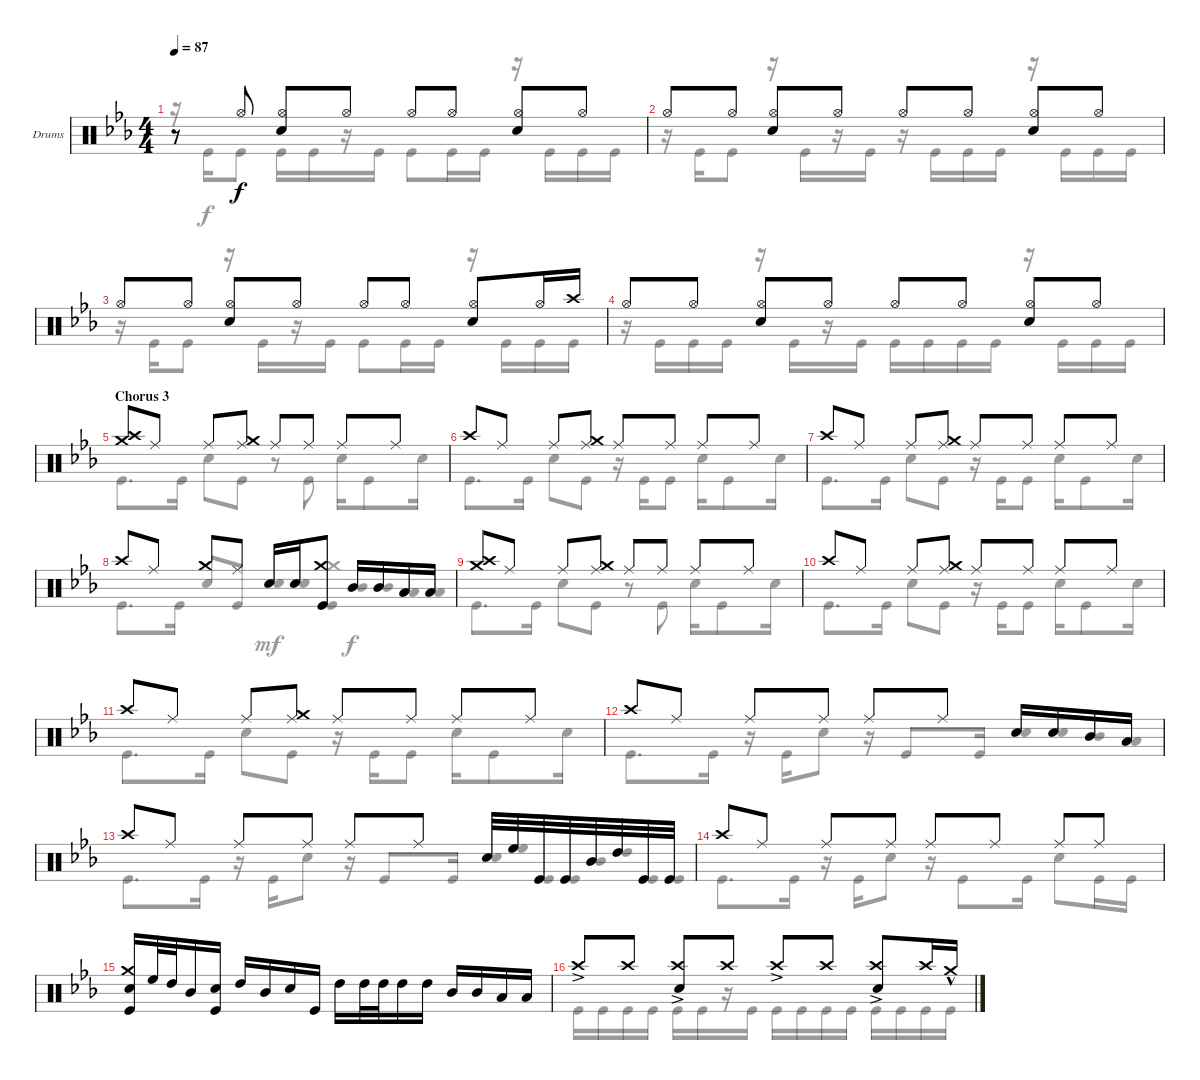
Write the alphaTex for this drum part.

\bracketExtendMode groupsimilarinstruments
\firstSystemTrackNameOrientation horizontal
\otherSystemsTrackNameOrientation horizontal
\track ("Mike Wengren" "Drums") {instrument percussion}
\staff {score}
\articulation defaults
\voice
\ts (4 4)
\tempo 87
\clef neutral
\ks cminor
r.8{dy f} "Hi-Hat (open)".8 ("Hi-Hat (open)" "Snare (hit) 2").8 "Hi-Hat (open)".8 "Hi-Hat (open)".8 "Hi-Hat (open)".8 ("Hi-Hat (open)" "Snare (hit) 2").8 "Hi-Hat (open)".8 |
"Hi-Hat (open)".8 "Hi-Hat (open)".8 ("Hi-Hat (open)" "Snare (hit) 2").8 "Hi-Hat (open)".8 "Hi-Hat (open)".8 "Hi-Hat (open)".8 ("Hi-Hat (open)" "Snare (hit) 2").8 "Hi-Hat (open)".8 |
"Hi-Hat (open)".8 "Hi-Hat (open)".8 ("Hi-Hat (open)" "Snare (hit) 2").8 "Hi-Hat (open)".8 "Hi-Hat (open)".8 "Hi-Hat (open)".8 ("Hi-Hat (open)" "Snare (hit) 2").8 "Hi-Hat (open)".16 "Crash high (hit)".16 |
"Hi-Hat (open)".8 "Hi-Hat (open)".8 ("Hi-Hat (open)" "Snare (hit) 2").8 "Hi-Hat (open)".8 "Hi-Hat (open)".8 "Hi-Hat (open)".8 ("Hi-Hat (open)" "Snare (hit) 2").8 "Hi-Hat (open)".8 |
\section ("" "Chorus 3")
("Crash high (hit)" "Crash medium (hit)").8 "Ride (middle)".8 "Ride (middle)".8 ("Crash medium (hit)" "Ride (middle)").8 "Ride (middle)".8 "Ride (middle)".8 "Ride (middle)".8 "Ride (middle)".8 |
"Crash high (hit)".8 "Ride (middle)".8 "Ride (middle)".8 ("Crash medium (hit)" "Ride (middle)").8 "Ride (middle)".8 "Ride (middle)".8 "Ride (middle)".8 "Ride (middle)".8 |
"Crash high (hit)".8 "Ride (middle)".8 "Ride (middle)".8 ("Crash medium (hit)" "Ride (middle)").8 "Ride (middle)".8 "Ride (middle)".8 "Ride (middle)".8 "Ride (middle)".8 |
"Crash high (hit)".8 "Ride (middle)".8 "Crash medium (hit)".8 "Ride (middle)".8 "Snare (hit) 2".16 "Snare (hit) 2".16 ("Crash medium (hit)" "Kick (hit)").8 "Mid Tom (hit)".16 "Mid Tom (hit)".16 "Low Tom (hit)".16 "Low Tom (hit)".16 |
("Crash high (hit)" "Crash medium (hit)").8 "Ride (middle)".8 "Ride (middle)".8 ("Crash medium (hit)" "Ride (middle)").8 "Ride (middle)".8 "Ride (middle)".8 "Ride (middle)".8 "Ride (middle)".8 |
"Crash high (hit)".8 "Ride (middle)".8 "Ride (middle)".8 ("Crash medium (hit)" "Ride (middle)").8 "Ride (middle)".8 "Ride (middle)".8 "Ride (middle)".8 "Ride (middle)".8 |
"Crash high (hit)".8 "Ride (middle)".8 "Ride (middle)".8 ("Crash medium (hit)" "Ride (middle)").8 "Ride (middle)".8 "Ride (middle)".8 "Ride (middle)".8 "Ride (middle)".8 |
"Crash high (hit)".8 "Ride (middle)".8 "Ride (middle)".8 "Ride (middle)".8 "Ride (middle)".8 "Ride (middle)".8 "Snare (hit) 2".16 "Snare (hit) 2".16 "Mid Tom (hit)".16 "Low Tom (hit)".16 |
"Crash high (hit)".8 "Ride (middle)".8 "Ride (middle)".8 "Ride (middle)".8 "Ride (middle)".8 "Ride (middle)".8 "Snare (hit) 2".32 "High Floor Tom (hit)".32 "Kick (hit)".32 "Kick (hit)".32 "Mid Tom (hit)".32 "High Tom (hit)".32 "Kick (hit)".32 "Kick (hit)".32 |
"Crash high (hit)".8 "Ride (middle)".8 "Ride (middle)".8 "Ride (middle)".8 "Ride (middle)".8 "Ride (middle)".8 "Ride (middle)".8 "Ride (middle)".8 |
("Crash medium (hit)" "Snare (hit) 2" "Kick (hit)").16 "High Floor Tom (hit)".32 "High Tom (hit)".32 "Mid Tom (hit)".16 ("Snare (hit) 2" "Kick (hit)").16 "High Tom (hit)".16 "Mid Tom (hit)".16 "Snare (hit) 2".16 "Kick (hit)".16 "High Tom (hit)".16 "High Tom (hit)".32 "High Tom (hit)".32 "High Tom (hit)".16 "High Tom (hit)".16 "Mid Tom (hit)".16 "Mid Tom (hit)".16 "Low Tom (hit)".16 "Low Tom (hit)".16 |
"Crash high (hit)"{ac}.8 "Crash high (hit)".8 ("Crash high (hit)"{ac} "Snare (hit) 2").8 "Crash high (hit)".8 "Crash high (hit)"{ac}.8 "Crash high (hit)".8 ("Crash high (hit)"{ac} "Snare (hit) 2").8 "Crash high (hit)".16 "Crash medium (hit)"{hac}.16
\voice
\clef neutral
\ottava regular
\simile none
\ks cminor
r.16{dy f} "Kick (hit)".16 "Kick (hit)".8 "Kick (hit)".16 "Kick (hit)".16 r.16 "Kick (hit)".16 "Kick (hit)".8 "Kick (hit)".16 "Kick (hit)".16 r.16 "Kick (hit)".16 "Kick (hit)".16 "Kick (hit)".16 |
r.16 "Kick (hit)".16 "Kick (hit)".8 r.16 "Kick (hit)".16 r.16 "Kick (hit)".16 r.16 "Kick (hit)".16 "Kick (hit)".16 "Kick (hit)".16 r.16 "Kick (hit)".16 "Kick (hit)".16 "Kick (hit)".16 |
r.16 "Kick (hit)".16 "Kick (hit)".8 r.16 "Kick (hit)".16 r.16 "Kick (hit)".16 "Kick (hit)".8 "Kick (hit)".16 "Kick (hit)".16 r.16 "Kick (hit)".16 "Kick (hit)".16 "Kick (hit)".16 |
r.16 "Kick (hit)".16 "Kick (hit)".16 "Kick (hit)".16 r.16 "Kick (hit)".16 r.16 "Kick (hit)".16 "Kick (hit)".16 "Kick (hit)".16 "Kick (hit)".16 "Kick (hit)".16 r.16 "Kick (hit)".16 "Kick (hit)".16 "Kick (hit)".16 |
"Kick (hit)".8{d} "Kick (hit)".16 "Snare (hit) 2".8 "Kick (hit)".8 r.8 "Kick (hit)".8 "Snare (hit) 2".16 "Kick (hit)".8 "Snare (hit) 2".16 |
"Kick (hit)".8{d} "Kick (hit)".16 "Snare (hit) 2".8 "Kick (hit)".8 r.16 "Kick (hit)".16 "Kick (hit)".8 "Snare (hit) 2".16 "Kick (hit)".8 "Snare (hit) 2".16 |
"Kick (hit)".8{d} "Kick (hit)".16 "Snare (hit) 2".8 "Kick (hit)".8 r.16 "Kick (hit)".16 "Kick (hit)".8 "Snare (hit) 2".16 "Kick (hit)".8 "Snare (hit) 2".16 |
"Kick (hit)".8{d} "Kick (hit)".16 "Snare (hit) 2".8 "Kick (hit)".8 "Snare (hit) 2".16{dy mf beam invert} "Snare (hit) 2".16 ("Crash medium (hit)" "Kick (hit)").8 "Mid Tom (hit)".16{dy f beam invert} "Mid Tom (hit)".16 "Low Tom (hit)".16 "Low Tom (hit)".16 |
"Kick (hit)".8{d} "Kick (hit)".16 "Snare (hit) 2".8 "Kick (hit)".8 r.8 "Kick (hit)".8 "Snare (hit) 2".16 "Kick (hit)".8 "Snare (hit) 2".16 |
"Kick (hit)".8{d} "Kick (hit)".16 "Snare (hit) 2".8 "Kick (hit)".8 r.16 "Kick (hit)".16 "Kick (hit)".8 "Snare (hit) 2".16 "Kick (hit)".8 "Snare (hit) 2".16 |
"Kick (hit)".8{d} "Kick (hit)".16 "Snare (hit) 2".8 "Kick (hit)".8 r.16 "Kick (hit)".16 "Kick (hit)".8 "Snare (hit) 2".16 "Kick (hit)".8 "Snare (hit) 2".16 |
"Kick (hit)".8{d} "Kick (hit)".16 r.16 "Kick (hit)".16 "Snare (hit) 2".8 r.16 "Kick (hit)".8 "Kick (hit)".16 "Snare (hit) 2".16{beam invert} "Snare (hit) 2".16 "Mid Tom (hit)".16 "Low Tom (hit)".16 |
"Kick (hit)".8{d} "Kick (hit)".16 r.16 "Kick (hit)".16 "Snare (hit) 2".8 r.16 "Kick (hit)".8 "Kick (hit)".16 "Snare (hit) 2".32{beam invert} "High Floor Tom (hit)".32 "Kick (hit)".32 "Kick (hit)".32 "Mid Tom (hit)".32 "High Tom (hit)".32 "Kick (hit)".32 "Kick (hit)".32 |
"Kick (hit)".8{d} "Kick (hit)".16 r.16 "Kick (hit)".16 "Snare (hit) 2".8 r.16 "Kick (hit)".8 "Kick (hit)".16 "Snare (hit) 2".8 "Kick (hit)".16 "Kick (hit)".16 |
|
"Kick (hit)".16 "Kick (hit)".16 "Kick (hit)".16 "Kick (hit)".16 "Kick (hit)".16 "Kick (hit)".16 r.16 "Kick (hit)".16 "Kick (hit)".16 "Kick (hit)".16 "Kick (hit)".16 "Kick (hit)".16 "Kick (hit)".16 "Kick (hit)".16 "Kick (hit)".16 "Kick (hit)".16
